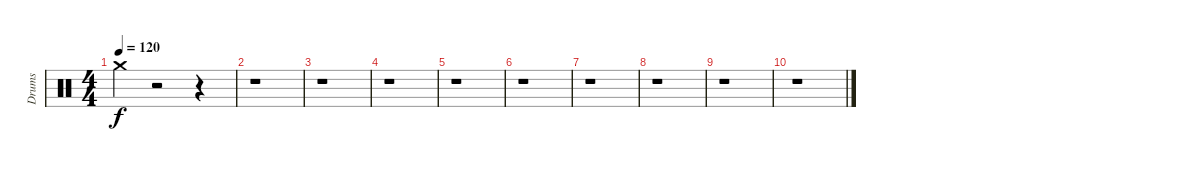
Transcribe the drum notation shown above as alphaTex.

\track ("Drums" "Drums") {instrument percussion}
\staff {score}
\articulation defaults
\ts (4 4)
\tempo 120
\clef neutral
\ks c "Crash medium (hit)".4{dy f}
r.2 r.4 |
r.1 |
r.1 |
r.1 |
r.1 |
r.1 |
r.1 |
r.1 |
r.1 |
r.1
